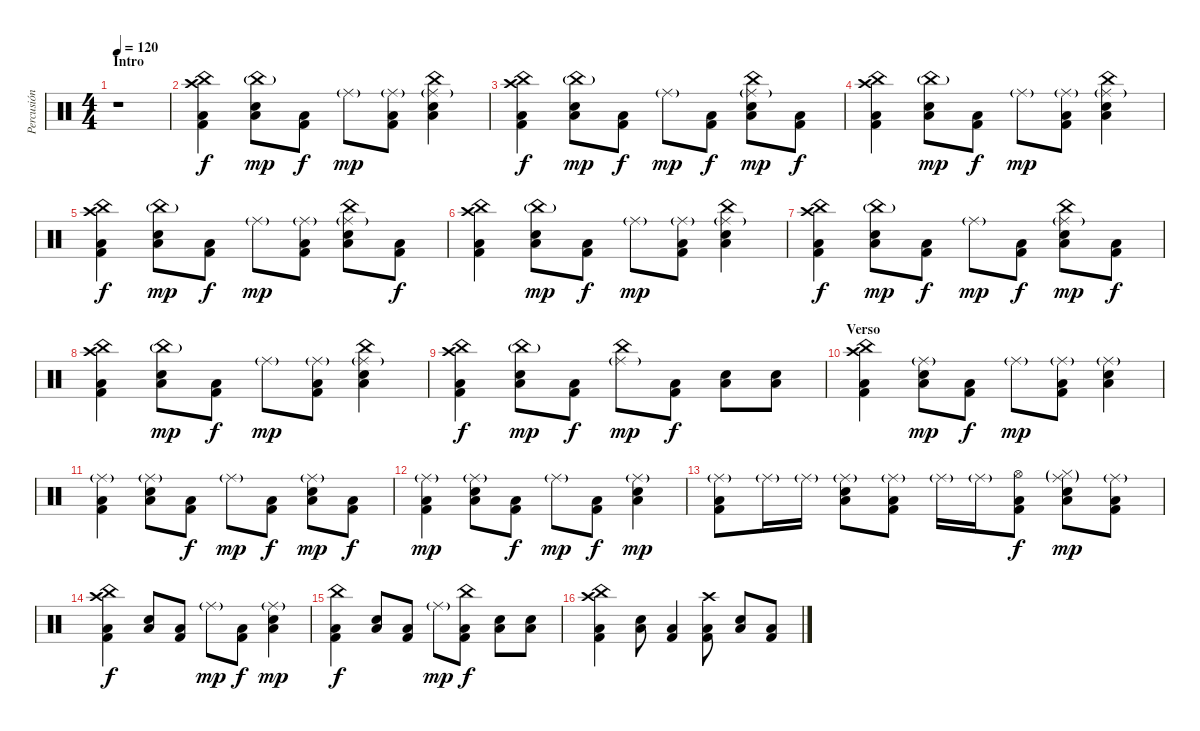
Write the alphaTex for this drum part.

\track ("Percusión" "Percusión") {instrument percussion}
\staff {score}
\articulation defaults
\ts (4 4)
\section ("" "Intro")
\tempo 120
\clef neutral
\ks c
r.1{dy f} |
("China (hit)" "Crash high (hit)" "Low Floor Tom (hit)" "Kick (hit) 2").4 ("China (hit)"{g} "Low Tom (hit)" "Electric Snare (hit)").8{dy mp} ("Low Floor Tom (hit)" "Kick (hit) 2").8{dy f} "Ride (middle)"{g}.8{dy mp} ("Ride (middle)"{g} "Low Floor Tom (hit)" "Kick (hit) 2").8 ("Ride (middle)"{g} "China (hit)" "Low Tom (hit)" "Electric Snare (hit)").4 |
("China (hit)" "Crash high (hit)" "Low Floor Tom (hit)" "Kick (hit) 2").4{dy f} ("China (hit)"{g} "Low Tom (hit)" "Electric Snare (hit)").8{dy mp} ("Low Floor Tom (hit)" "Kick (hit) 2").8{dy f} "Ride (middle)"{g}.8{dy mp} ("Low Floor Tom (hit)" "Kick (hit) 2").8{dy f} ("Ride (middle)"{g} "China (hit)" "Low Tom (hit)" "Electric Snare (hit)").8{dy mp} ("Low Floor Tom (hit)" "Kick (hit) 2").8{dy f} |
("China (hit)" "Crash high (hit)" "Low Floor Tom (hit)" "Kick (hit) 2").4 ("China (hit)"{g} "Low Tom (hit)" "Electric Snare (hit)").8{dy mp} ("Low Floor Tom (hit)" "Kick (hit) 2").8{dy f} "Ride (middle)"{g}.8{dy mp} ("Ride (middle)"{g} "Low Floor Tom (hit)" "Kick (hit) 2").8 ("Ride (middle)"{g} "China (hit)" "Low Tom (hit)" "Electric Snare (hit)").4 |
("China (hit)" "Crash high (hit)" "Low Floor Tom (hit)" "Kick (hit) 2").4{dy f} ("China (hit)"{g} "Low Tom (hit)" "Electric Snare (hit)").8{dy mp} ("Low Floor Tom (hit)" "Kick (hit) 2").8{dy f} "Ride (middle)"{g}.8{dy mp} ("Ride (middle)"{g} "Low Floor Tom (hit)" "Kick (hit) 2").8 ("Ride (middle)"{g} "China (hit)" "Low Tom (hit)" "Electric Snare (hit)").8 ("Low Floor Tom (hit)" "Kick (hit) 2").8{dy f} |
("China (hit)" "Crash high (hit)" "Low Floor Tom (hit)" "Kick (hit) 2").4 ("China (hit)"{g} "Low Tom (hit)" "Electric Snare (hit)").8{dy mp} ("Low Floor Tom (hit)" "Kick (hit) 2").8{dy f} "Ride (middle)"{g}.8{dy mp} ("Ride (middle)"{g} "Low Floor Tom (hit)" "Kick (hit) 2").8 ("Ride (middle)"{g} "China (hit)" "Low Tom (hit)" "Electric Snare (hit)").4 |
("China (hit)" "Crash high (hit)" "Low Floor Tom (hit)" "Kick (hit) 2").4{dy f} ("China (hit)"{g} "Low Tom (hit)" "Electric Snare (hit)").8{dy mp} ("Low Floor Tom (hit)" "Kick (hit) 2").8{dy f} "Ride (middle)"{g}.8{dy mp} ("Low Floor Tom (hit)" "Kick (hit) 2").8{dy f} ("Ride (middle)"{g} "China (hit)" "Low Tom (hit)" "Electric Snare (hit)").8{dy mp} ("Low Floor Tom (hit)" "Kick (hit) 2").8{dy f} |
("China (hit)" "Crash high (hit)" "Low Floor Tom (hit)" "Kick (hit) 2").4 ("China (hit)"{g} "Low Tom (hit)" "Electric Snare (hit)").8{dy mp} ("Low Floor Tom (hit)" "Kick (hit) 2").8{dy f} "Ride (middle)"{g}.8{dy mp} ("Ride (middle)"{g} "Low Floor Tom (hit)" "Kick (hit) 2").8 ("Ride (middle)"{g} "China (hit)" "Low Tom (hit)" "Electric Snare (hit)").4 |
("China (hit)" "Crash high (hit)" "Low Floor Tom (hit)" "Kick (hit) 2").4{dy f} ("China (hit)"{g} "Low Tom (hit)" "Electric Snare (hit)").8{dy mp} ("Low Floor Tom (hit)" "Kick (hit) 2").8{dy f} ("Ride (middle)"{g} "China (hit)").8{dy mp} ("Low Floor Tom (hit)" "Kick (hit) 2").8{dy f} ("Low Tom (hit)" "Electric Snare (hit)").8 ("Low Tom (hit)" "Electric Snare (hit)").8 |
\section ("" "Verso")
("China (hit)" "Crash high (hit)" "Low Floor Tom (hit)" "Kick (hit) 2").4 ("Ride (middle)"{g} "Low Tom (hit)" "Electric Snare (hit)").8{dy mp} ("Low Floor Tom (hit)" "Kick (hit) 2").8{dy f} "Ride (middle)"{g}.8{dy mp} ("Ride (middle)"{g} "Low Floor Tom (hit)" "Kick (hit) 2").8 ("Ride (middle)"{g} "Low Tom (hit)" "Electric Snare (hit)").4 |
("Ride (middle)"{g} "Low Floor Tom (hit)" "Kick (hit) 2").4 ("Ride (middle)"{g} "Low Tom (hit)" "Electric Snare (hit)").8 ("Low Floor Tom (hit)" "Kick (hit) 2").8{dy f} "Ride (middle)"{g}.8{dy mp} ("Low Floor Tom (hit)" "Kick (hit) 2").8{dy f} ("Ride (middle)"{g} "Low Tom (hit)" "Electric Snare (hit)").8{dy mp} ("Low Floor Tom (hit)" "Kick (hit) 2").8{dy f} |
("Ride (middle)"{g} "Low Floor Tom (hit)" "Kick (hit) 2").4{dy mp} ("Ride (middle)"{g} "Low Tom (hit)" "Electric Snare (hit)").8 ("Low Floor Tom (hit)" "Kick (hit) 2").8{dy f} "Ride (middle)"{g}.8{dy mp} ("Low Floor Tom (hit)" "Kick (hit) 2").8{dy f} ("Ride (middle)"{g} "Low Tom (hit)" "Electric Snare (hit)").4{dy mp} |
("Ride (middle)"{g} "Low Floor Tom (hit)" "Kick (hit) 2").8 "Ride (middle)"{g}.16 "Ride (middle)"{g}.16 ("Ride (middle)"{g} "Low Tom (hit)" "Electric Snare (hit)").8 ("Ride (middle)"{g} "Low Floor Tom (hit)" "Kick (hit) 2").8 "Ride (middle)"{g}.16 "Ride (middle)"{g}.16 ("Hi-Hat (open)" "Low Floor Tom (hit)" "Kick (hit) 2").8{dy f} ("Ride (middle)"{g} "Hi-Hat (closed)"{g} "Low Tom (hit)" "Electric Snare (hit)").8{dy mp} ("Ride (middle)"{g} "Low Floor Tom (hit)" "Kick (hit) 2").8 |
("China (hit)" "Crash high (hit)" "Low Floor Tom (hit)" "Kick (hit) 2").4{dy f} ("Low Tom (hit)" "Electric Snare (hit)").8 ("Low Floor Tom (hit)" "Kick (hit) 2").8 "Ride (middle)"{g}.8{dy mp} ("Low Floor Tom (hit)" "Kick (hit) 2").8{dy f} ("Ride (middle)"{g} "Low Tom (hit)" "Electric Snare (hit)").4{dy mp} |
("China (hit)" "Low Floor Tom (hit)" "Kick (hit) 2").4{dy f} ("Low Tom (hit)" "Electric Snare (hit)").8 ("Low Floor Tom (hit)" "Kick (hit) 2").8 "Ride (middle)"{g}.8{dy mp} ("China (hit)" "Low Floor Tom (hit)" "Kick (hit) 2").8{dy f} ("Low Tom (hit)" "Electric Snare (hit)").8 ("Low Tom (hit)" "Electric Snare (hit)").8 |
("China (hit)" "Crash high (hit)" "Low Floor Tom (hit)" "Kick (hit) 2").4 ("Low Tom (hit)" "Electric Snare (hit)").8 ("Low Floor Tom (hit)" "Kick (hit) 2").4 ("Crash high (hit)" "Low Floor Tom (hit)" "Kick (hit) 2").8 ("Low Tom (hit)" "Electric Snare (hit)").8 ("Low Floor Tom (hit)" "Kick (hit) 2").8
